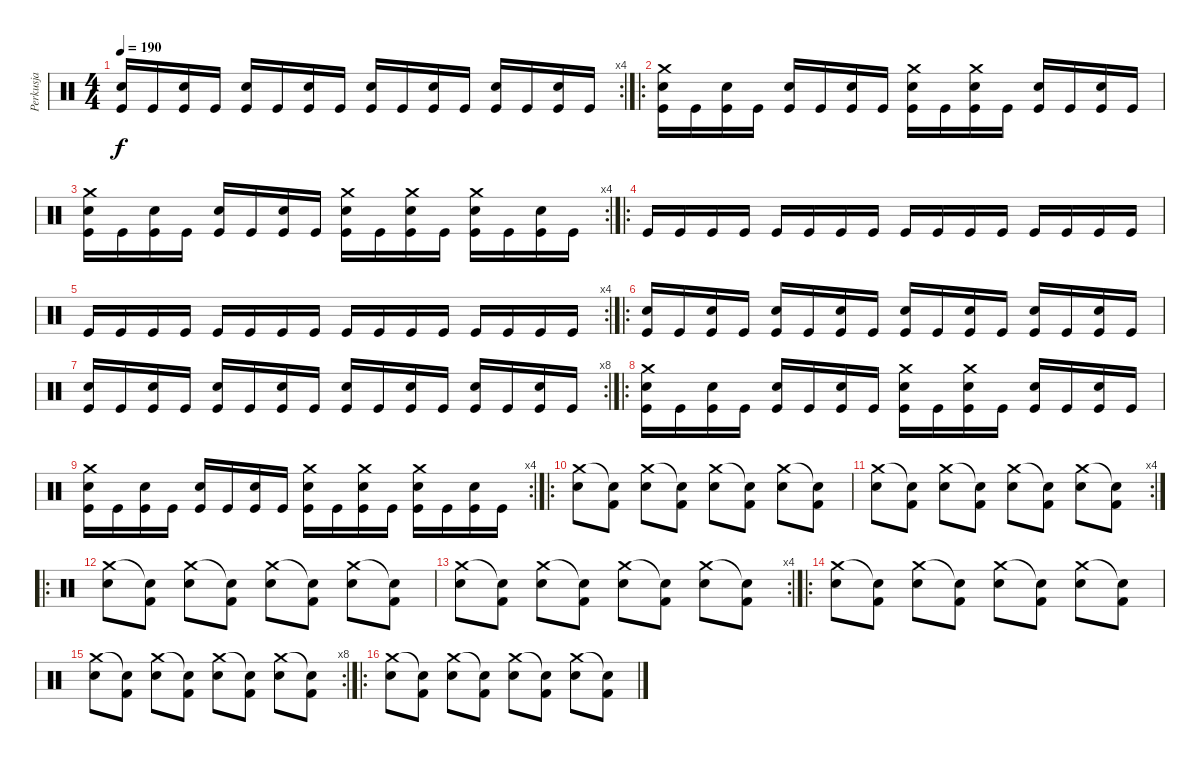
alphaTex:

\track ("Perkusja" "Perkusja") {instrument percussion}
\staff {score}
\articulation defaults
\rc 4
\ts (4 4)
\tempo 190
\clef neutral
\ks c
("Snare (hit) 2" "Kick (hit)").16{dy f} "Kick (hit)".16 ("Snare (hit) 2" "Kick (hit)").16 "Kick (hit)".16 ("Snare (hit) 2" "Kick (hit)").16 "Kick (hit)".16 ("Snare (hit) 2" "Kick (hit)").16 "Kick (hit)".16 ("Snare (hit) 2" "Kick (hit)").16 "Kick (hit)".16 ("Snare (hit) 2" "Kick (hit)").16 "Kick (hit)".16 ("Snare (hit) 2" "Kick (hit)").16 "Kick (hit)".16 ("Snare (hit) 2" "Kick (hit)").16 "Kick (hit)".16 |
\ro
("Crash medium (hit)" "Snare (hit) 2" "Kick (hit)").16 "Kick (hit)".16 ("Snare (hit) 2" "Kick (hit)").16 "Kick (hit)".16 ("Snare (hit) 2" "Kick (hit)").16 "Kick (hit)".16 ("Snare (hit) 2" "Kick (hit)").16 "Kick (hit)".16 ("Crash medium (hit)" "Snare (hit) 2" "Kick (hit)").16 "Kick (hit)".16 ("Crash medium (hit)" "Snare (hit) 2" "Kick (hit)").16 "Kick (hit)".16 ("Snare (hit) 2" "Kick (hit)").16 "Kick (hit)".16 ("Snare (hit) 2" "Kick (hit)").16 "Kick (hit)".16 |
\rc 4
("Crash medium (hit)" "Snare (hit) 2" "Kick (hit)").16 "Kick (hit)".16 ("Snare (hit) 2" "Kick (hit)").16 "Kick (hit)".16 ("Snare (hit) 2" "Kick (hit)").16 "Kick (hit)".16 ("Snare (hit) 2" "Kick (hit)").16 "Kick (hit)".16 ("Crash medium (hit)" "Snare (hit) 2" "Kick (hit)").16 "Kick (hit)".16 ("Crash medium (hit)" "Snare (hit) 2" "Kick (hit)").16 "Kick (hit)".16 ("Crash medium (hit)" "Snare (hit) 2" "Kick (hit)").16 "Kick (hit)".16 ("Snare (hit) 2" "Kick (hit)").16 "Kick (hit)".16 |
\ro "Kick (hit)".16 "Kick (hit)".16 "Kick (hit)".16 "Kick (hit)".16 "Kick (hit)".16 "Kick (hit)".16 "Kick (hit)".16 "Kick (hit)".16 "Kick (hit)".16 "Kick (hit)".16 "Kick (hit)".16 "Kick (hit)".16 "Kick (hit)".16 "Kick (hit)".16 "Kick (hit)".16 "Kick (hit)".16
|
\rc 4 "Kick (hit)".16 "Kick (hit)".16 "Kick (hit)".16 "Kick (hit)".16 "Kick (hit)".16 "Kick (hit)".16 "Kick (hit)".16 "Kick (hit)".16 "Kick (hit)".16 "Kick (hit)".16 "Kick (hit)".16 "Kick (hit)".16 "Kick (hit)".16 "Kick (hit)".16 "Kick (hit)".16 "Kick (hit)".16
|
\ro
("Snare (hit) 2" "Kick (hit)").16 "Kick (hit)".16 ("Snare (hit) 2" "Kick (hit)").16 "Kick (hit)".16 ("Snare (hit) 2" "Kick (hit)").16 "Kick (hit)".16 ("Snare (hit) 2" "Kick (hit)").16 "Kick (hit)".16 ("Snare (hit) 2" "Kick (hit)").16 "Kick (hit)".16 ("Snare (hit) 2" "Kick (hit)").16 "Kick (hit)".16 ("Snare (hit) 2" "Kick (hit)").16 "Kick (hit)".16 ("Snare (hit) 2" "Kick (hit)").16 "Kick (hit)".16 |
\rc 8
("Snare (hit) 2" "Kick (hit)").16 "Kick (hit)".16 ("Snare (hit) 2" "Kick (hit)").16 "Kick (hit)".16 ("Snare (hit) 2" "Kick (hit)").16 "Kick (hit)".16 ("Snare (hit) 2" "Kick (hit)").16 "Kick (hit)".16 ("Snare (hit) 2" "Kick (hit)").16 "Kick (hit)".16 ("Snare (hit) 2" "Kick (hit)").16 "Kick (hit)".16 ("Snare (hit) 2" "Kick (hit)").16 "Kick (hit)".16 ("Snare (hit) 2" "Kick (hit)").16 "Kick (hit)".16 |
\ro
("Crash medium (hit)" "Snare (hit) 2" "Kick (hit)").16 "Kick (hit)".16 ("Snare (hit) 2" "Kick (hit)").16 "Kick (hit)".16 ("Snare (hit) 2" "Kick (hit)").16 "Kick (hit)".16 ("Snare (hit) 2" "Kick (hit)").16 "Kick (hit)".16 ("Crash medium (hit)" "Snare (hit) 2" "Kick (hit)").16 "Kick (hit)".16 ("Crash medium (hit)" "Snare (hit) 2" "Kick (hit)").16 "Kick (hit)".16 ("Snare (hit) 2" "Kick (hit)").16 "Kick (hit)".16 ("Snare (hit) 2" "Kick (hit)").16 "Kick (hit)".16 |
\rc 4
("Crash medium (hit)" "Snare (hit) 2" "Kick (hit)").16 "Kick (hit)".16 ("Snare (hit) 2" "Kick (hit)").16 "Kick (hit)".16 ("Snare (hit) 2" "Kick (hit)").16 "Kick (hit)".16 ("Snare (hit) 2" "Kick (hit)").16 "Kick (hit)".16 ("Crash medium (hit)" "Snare (hit) 2" "Kick (hit)").16 "Kick (hit)".16 ("Crash medium (hit)" "Snare (hit) 2" "Kick (hit)").16 "Kick (hit)".16 ("Crash medium (hit)" "Snare (hit) 2" "Kick (hit)").16 "Kick (hit)".16 ("Snare (hit) 2" "Kick (hit)").16 "Kick (hit)".16 |
\ro
("Crash medium (hit)" "Snare (hit) 2").8 ("Snare (hit)"{t} "Kick (hit) 2").8 ("Crash medium (hit)" "Snare (hit) 2").8 ("Snare (hit)"{t} "Kick (hit) 2").8 ("Crash medium (hit)" "Snare (hit) 2").8 ("Snare (hit)"{t} "Kick (hit) 2").8 ("Crash medium (hit)" "Snare (hit) 2").8 ("Snare (hit)"{t} "Kick (hit) 2").8 |
\rc 4
("Crash medium (hit)" "Snare (hit) 2").8 ("Snare (hit)"{t} "Kick (hit) 2").8 ("Crash medium (hit)" "Snare (hit) 2").8 ("Snare (hit)"{t} "Kick (hit) 2").8 ("Crash medium (hit)" "Snare (hit) 2").8 ("Snare (hit)"{t} "Kick (hit) 2").8 ("Crash medium (hit)" "Snare (hit) 2").8 ("Snare (hit)"{t} "Kick (hit) 2").8 |
\ro
("Crash medium (hit)" "Snare (hit) 2").8 ("Snare (hit)"{t} "Kick (hit) 2").8 ("Crash medium (hit)" "Snare (hit) 2").8 ("Snare (hit)"{t} "Kick (hit) 2").8 ("Crash medium (hit)" "Snare (hit) 2").8 ("Snare (hit)"{t} "Kick (hit) 2").8 ("Crash medium (hit)" "Snare (hit) 2").8 ("Snare (hit)"{t} "Kick (hit) 2").8 |
\rc 4
("Crash medium (hit)" "Snare (hit) 2").8 ("Snare (hit)"{t} "Kick (hit) 2").8 ("Crash medium (hit)" "Snare (hit) 2").8 ("Snare (hit)"{t} "Kick (hit) 2").8 ("Crash medium (hit)" "Snare (hit) 2").8 ("Snare (hit)"{t} "Kick (hit) 2").8 ("Crash medium (hit)" "Snare (hit) 2").8 ("Snare (hit)"{t} "Kick (hit) 2").8 |
\ro
("Crash medium (hit)" "Snare (hit) 2").8 ("Snare (hit)"{t} "Kick (hit) 2").8 ("Crash medium (hit)" "Snare (hit) 2").8 ("Snare (hit)"{t} "Kick (hit) 2").8 ("Crash medium (hit)" "Snare (hit) 2").8 ("Snare (hit)"{t} "Kick (hit) 2").8 ("Crash medium (hit)" "Snare (hit) 2").8 ("Snare (hit)"{t} "Kick (hit) 2").8 |
\rc 8
("Crash medium (hit)" "Snare (hit) 2").8 ("Snare (hit)"{t} "Kick (hit) 2").8 ("Crash medium (hit)" "Snare (hit) 2").8 ("Snare (hit)"{t} "Kick (hit) 2").8 ("Crash medium (hit)" "Snare (hit) 2").8 ("Snare (hit)"{t} "Kick (hit) 2").8 ("Crash medium (hit)" "Snare (hit) 2").8 ("Snare (hit)"{t} "Kick (hit) 2").8 |
\ro
("Crash medium (hit)" "Snare (hit) 2").8 ("Snare (hit)"{t} "Kick (hit) 2").8 ("Crash medium (hit)" "Snare (hit) 2").8 ("Snare (hit)"{t} "Kick (hit) 2").8 ("Crash medium (hit)" "Snare (hit) 2").8 ("Snare (hit)"{t} "Kick (hit) 2").8 ("Crash medium (hit)" "Snare (hit) 2").8 ("Snare (hit)"{t} "Kick (hit) 2").8
